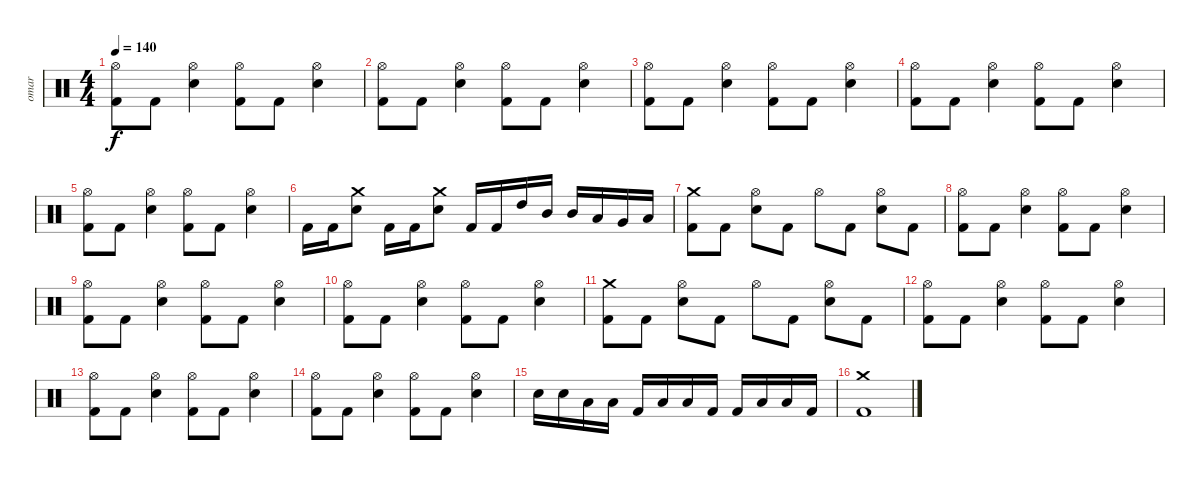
\track ("omar" "omar") {instrument percussion}
\staff {score}
\articulation defaults
\ts (4 4)
\tempo 140
\clef neutral
\ks c
("Hi-Hat (open)" "Kick (hit) 2").8{dy f} "Kick (hit) 2".8 ("Hi-Hat (open)" "Electric Snare (hit)").4 ("Hi-Hat (open)" "Kick (hit) 2").8 "Kick (hit) 2".8 ("Hi-Hat (open)" "Electric Snare (hit)").4 |
("Hi-Hat (open)" "Kick (hit) 2").8 "Kick (hit) 2".8 ("Hi-Hat (open)" "Electric Snare (hit)").4 ("Hi-Hat (open)" "Kick (hit) 2").8 "Kick (hit) 2".8 ("Hi-Hat (open)" "Electric Snare (hit)").4 |
("Hi-Hat (open)" "Kick (hit) 2").8 "Kick (hit) 2".8 ("Hi-Hat (open)" "Electric Snare (hit)").4 ("Hi-Hat (open)" "Kick (hit) 2").8 "Kick (hit) 2".8 ("Hi-Hat (open)" "Electric Snare (hit)").4 |
("Hi-Hat (open)" "Kick (hit) 2").8 "Kick (hit) 2".8 ("Hi-Hat (open)" "Electric Snare (hit)").4 ("Hi-Hat (open)" "Kick (hit) 2").8 "Kick (hit) 2".8 ("Hi-Hat (open)" "Electric Snare (hit)").4 |
("Hi-Hat (open)" "Kick (hit) 2").8 "Kick (hit) 2".8 ("Hi-Hat (open)" "Electric Snare (hit)").4 ("Hi-Hat (open)" "Kick (hit) 2").8 "Kick (hit) 2".8 ("Hi-Hat (open)" "Electric Snare (hit)").4 |
"Kick (hit) 2".16 "Kick (hit) 2".16 ("Crash medium (hit)" "Electric Snare (hit)").8 "Kick (hit) 2".16 "Kick (hit) 2".16 ("Crash medium (hit)" "Electric Snare (hit)").8 "Kick (hit) 2".16 "Kick (hit) 2".16 "High Tom (hit)".16 "Mid Tom (hit)".16 "Mid Tom (hit)".16 "Low Tom (hit)".16 "Very Low Tom (hit)".16 "Low Floor Tom (hit)".16 |
("Crash medium (hit)" "Kick (hit) 2").8 "Kick (hit) 2".8 ("Hi-Hat (open)" "Electric Snare (hit)").8 "Kick (hit) 2".8 "Hi-Hat (open)".8 "Kick (hit) 2".8 ("Hi-Hat (open)" "Electric Snare (hit)").8 "Kick (hit) 2".8 |
("Hi-Hat (open)" "Kick (hit) 2").8 "Kick (hit) 2".8 ("Hi-Hat (open)" "Electric Snare (hit)").4 ("Hi-Hat (open)" "Kick (hit) 2").8 "Kick (hit) 2".8 ("Hi-Hat (open)" "Electric Snare (hit)").4 |
("Hi-Hat (open)" "Kick (hit) 2").8 "Kick (hit) 2".8 ("Hi-Hat (open)" "Electric Snare (hit)").4 ("Hi-Hat (open)" "Kick (hit) 2").8 "Kick (hit) 2".8 ("Hi-Hat (open)" "Electric Snare (hit)").4 |
("Hi-Hat (open)" "Kick (hit) 2").8 "Kick (hit) 2".8 ("Hi-Hat (open)" "Electric Snare (hit)").4 ("Hi-Hat (open)" "Kick (hit) 2").8 "Kick (hit) 2".8 ("Hi-Hat (open)" "Electric Snare (hit)").4 |
("Crash medium (hit)" "Kick (hit) 2").8 "Kick (hit) 2".8 ("Hi-Hat (open)" "Electric Snare (hit)").8 "Kick (hit) 2".8 "Hi-Hat (open)".8 "Kick (hit) 2".8 ("Hi-Hat (open)" "Electric Snare (hit)").8 "Kick (hit) 2".8 |
("Hi-Hat (open)" "Kick (hit) 2").8 "Kick (hit) 2".8 ("Hi-Hat (open)" "Electric Snare (hit)").4 ("Hi-Hat (open)" "Kick (hit) 2").8 "Kick (hit) 2".8 ("Hi-Hat (open)" "Electric Snare (hit)").4 |
("Hi-Hat (open)" "Kick (hit) 2").8 "Kick (hit) 2".8 ("Hi-Hat (open)" "Electric Snare (hit)").4 ("Hi-Hat (open)" "Kick (hit) 2").8 "Kick (hit) 2".8 ("Hi-Hat (open)" "Electric Snare (hit)").4 |
("Hi-Hat (open)" "Kick (hit) 2").8 "Kick (hit) 2".8 ("Hi-Hat (open)" "Electric Snare (hit)").4 ("Hi-Hat (open)" "Kick (hit) 2").8 "Kick (hit) 2".8 ("Hi-Hat (open)" "Electric Snare (hit)").4 |
"Electric Snare (hit)".16 "Electric Snare (hit)".16 "Low Tom (hit)".16 "Low Tom (hit)".16 "Kick (hit) 2".16 "Low Tom (hit)".16 "Low Tom (hit)".16 "Kick (hit) 2".16 "Kick (hit) 2".16 "Low Tom (hit)".16 "Low Tom (hit)".16 "Kick (hit) 2".16 |
("Crash medium (hit)" "Kick (hit) 2").1
